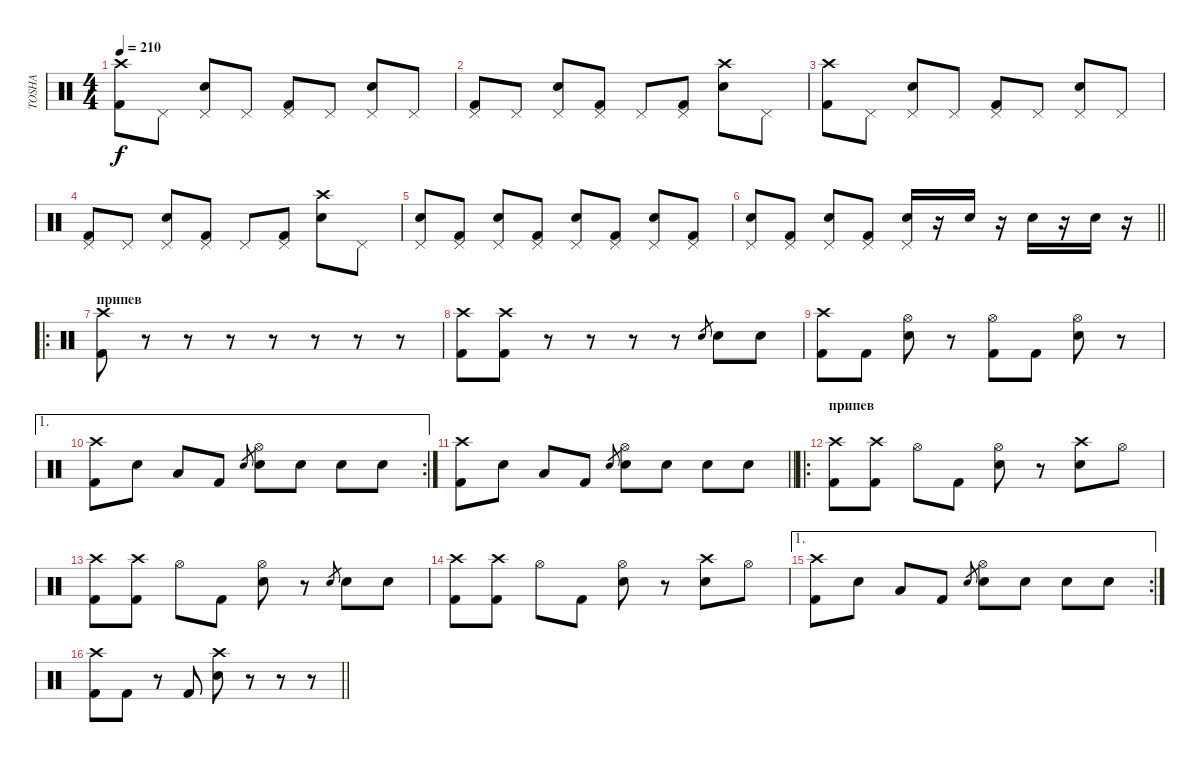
\track ("TOSHA" "TOSHA") {instrument percussion}
\staff {score}
\articulation defaults
\ts (4 4)
\tempo 210
\clef neutral
\ks c
("Kick (hit) 2" "Crash high (hit)").8{dy f} "Pedal Hi-Hat (hit)".8 ("Electric Snare (hit)" "Pedal Hi-Hat (hit)").8 "Pedal Hi-Hat (hit)".8 ("Kick (hit) 2" "Pedal Hi-Hat (hit)").8 "Pedal Hi-Hat (hit)".8 ("Electric Snare (hit)" "Pedal Hi-Hat (hit)").8 "Pedal Hi-Hat (hit)".8 |
("Kick (hit) 2" "Pedal Hi-Hat (hit)").8 "Pedal Hi-Hat (hit)".8 ("Electric Snare (hit)" "Pedal Hi-Hat (hit)").8 ("Kick (hit) 2" "Pedal Hi-Hat (hit)").8 "Pedal Hi-Hat (hit)".8 ("Kick (hit) 2" "Pedal Hi-Hat (hit)").8 ("Electric Snare (hit)" "Crash high (hit)").8 "Pedal Hi-Hat (hit)".8 |
("Kick (hit) 2" "Crash high (hit)").8 "Pedal Hi-Hat (hit)".8 ("Electric Snare (hit)" "Pedal Hi-Hat (hit)").8 "Pedal Hi-Hat (hit)".8 ("Kick (hit) 2" "Pedal Hi-Hat (hit)").8 "Pedal Hi-Hat (hit)".8 ("Electric Snare (hit)" "Pedal Hi-Hat (hit)").8 "Pedal Hi-Hat (hit)".8 |
("Kick (hit) 2" "Pedal Hi-Hat (hit)").8 "Pedal Hi-Hat (hit)".8 ("Electric Snare (hit)" "Pedal Hi-Hat (hit)").8 ("Kick (hit) 2" "Pedal Hi-Hat (hit)").8 "Pedal Hi-Hat (hit)".8 ("Kick (hit) 2" "Pedal Hi-Hat (hit)").8 ("Electric Snare (hit)" "Crash high (hit)").8 "Pedal Hi-Hat (hit)".8 |
("Electric Snare (hit)" "Pedal Hi-Hat (hit)").8 ("Kick (hit) 2" "Pedal Hi-Hat (hit)").8 ("Electric Snare (hit)" "Pedal Hi-Hat (hit)").8 ("Kick (hit) 2" "Pedal Hi-Hat (hit)").8 ("Electric Snare (hit)" "Pedal Hi-Hat (hit)").8 ("Kick (hit) 2" "Pedal Hi-Hat (hit)").8 ("Electric Snare (hit)" "Pedal Hi-Hat (hit)").8 ("Kick (hit) 2" "Pedal Hi-Hat (hit)").8 |
\barLineRight lightlight
("Electric Snare (hit)" "Pedal Hi-Hat (hit)").8 ("Kick (hit) 2" "Pedal Hi-Hat (hit)").8 ("Electric Snare (hit)" "Pedal Hi-Hat (hit)").8 ("Kick (hit) 2" "Pedal Hi-Hat (hit)").8 ("Electric Snare (hit)" "Pedal Hi-Hat (hit)").16 r.16 "Electric Snare (hit)".16 r.16 "Electric Snare (hit)".16 r.16 "Electric Snare (hit)".16 r.16 |
\ro
\section ("" "припев")
("Kick (hit) 2" "Crash high (hit)").8 r.8 r.8 r.8 r.8 r.8 r.8 r.8 |
("Kick (hit) 2" "Crash high (hit)").8 ("Kick (hit) 2" "Crash high (hit)").8 r.8 r.8 r.8 r.8 "Electric Snare (hit)".8{gr} "Electric Snare (hit)".8 "Electric Snare (hit)".8 |
("Kick (hit) 2" "Crash high (hit)").8 "Kick (hit) 2".8 ("Electric Snare (hit)" "Hi-Hat (open)").8 r.8 ("Kick (hit) 2" "Hi-Hat (open)").8 "Kick (hit) 2".8 ("Electric Snare (hit)" "Hi-Hat (open)").8 r.8 |
\ae 1
\rc 2
("Kick (hit) 2" "Crash high (hit)").8 "Electric Snare (hit)".8 "Low Tom (hit)".8 "Kick (hit) 2".8 "Electric Snare (hit)".8{gr} ("Electric Snare (hit)" "Hi-Hat (open)").8 "Electric Snare (hit)".8 "Electric Snare (hit)".8 "Electric Snare (hit)".8 |
\barLineRight lightlight
("Kick (hit) 2" "Crash high (hit)").8 "Electric Snare (hit)".8 "Low Tom (hit)".8 "Kick (hit) 2".8 "Electric Snare (hit)".8{gr} ("Electric Snare (hit)" "Hi-Hat (open)").8 "Electric Snare (hit)".8 "Electric Snare (hit)".8 "Electric Snare (hit)".8 |
\ro
\section ("" "припев")
("Kick (hit) 2" "Crash high (hit)").8 ("Kick (hit) 2" "Crash high (hit)").8 "Hi-Hat (open)".8 "Kick (hit) 2".8 ("Electric Snare (hit)" "Hi-Hat (open)").8 r.8 ("Electric Snare (hit)" "Crash high (hit)").8 "Hi-Hat (open)".8 |
("Kick (hit) 2" "Crash high (hit)").8 ("Kick (hit) 2" "Crash high (hit)").8 "Hi-Hat (open)".8 "Kick (hit) 2".8 ("Electric Snare (hit)" "Hi-Hat (open)").8 r.8 "Electric Snare (hit)".8{gr} "Electric Snare (hit)".8 "Electric Snare (hit)".8 |
("Kick (hit) 2" "Crash high (hit)").8 ("Kick (hit) 2" "Crash high (hit)").8 "Hi-Hat (open)".8 "Kick (hit) 2".8 ("Electric Snare (hit)" "Hi-Hat (open)").8 r.8 ("Electric Snare (hit)" "Crash high (hit)").8 "Hi-Hat (open)".8 |
\ae 1
\rc 2
("Kick (hit) 2" "Crash high (hit)").8 "Electric Snare (hit)".8 "Low Tom (hit)".8 "Kick (hit) 2".8 "Electric Snare (hit)".8{gr} ("Electric Snare (hit)" "Hi-Hat (open)").8 "Electric Snare (hit)".8 "Electric Snare (hit)".8 "Electric Snare (hit)".8 |
\barLineRight lightlight
("Kick (hit) 2" "Crash high (hit)").8 "Kick (hit) 2".8 r.8 "Kick (hit) 2".8 ("Electric Snare (hit)" "Crash high (hit)").8 r.8 r.8 r.8
